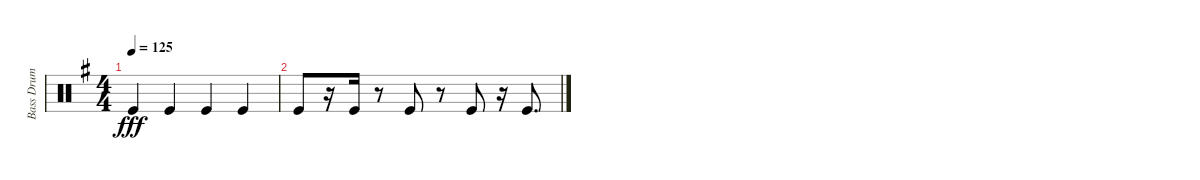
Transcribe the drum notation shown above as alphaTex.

\track ("Bass Drum" "Bass Drum") {instrument percussion}
\staff {score}
\articulation defaults
\ts (4 4)
\tempo 125
\clef neutral
\ks g "Kick (hit)".4{dy fff} "Kick (hit)".4 "Kick (hit)".4 "Kick (hit)".4
|
"Kick (hit)".8 r.16 "Kick (hit)".16 r.8 "Kick (hit)".8 r.8 "Kick (hit)".8 r.16 "Kick (hit)".8{d}
